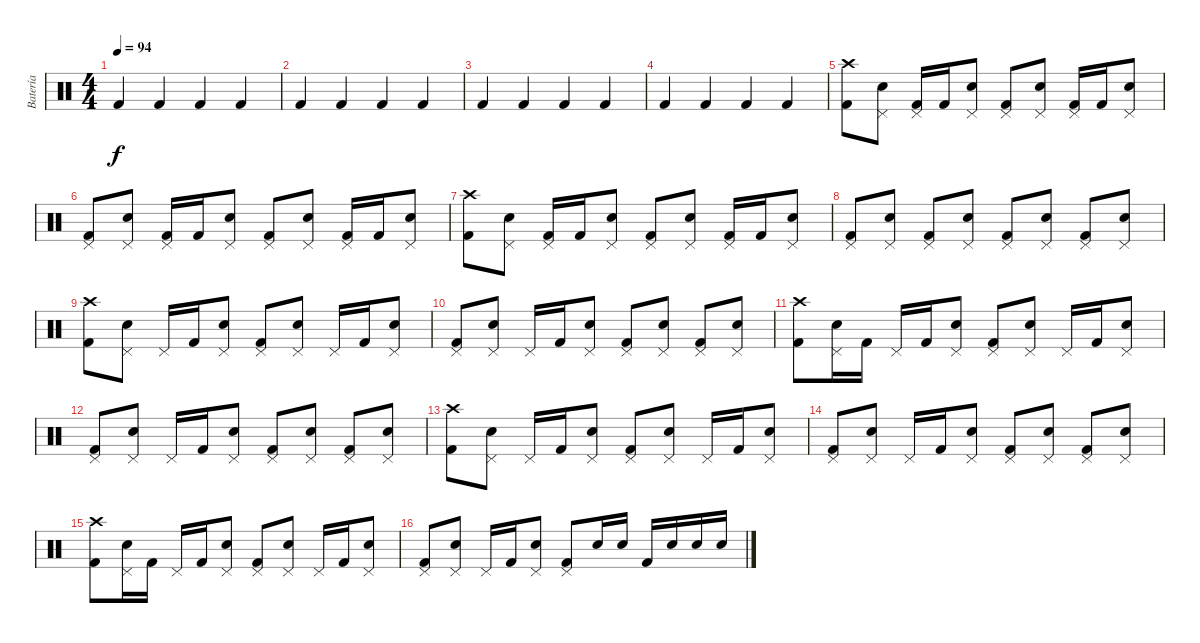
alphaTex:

\track ("Batería" "Batería") {instrument percussion}
\staff {score}
\articulation defaults
\ts (4 4)
\tempo 94
\clef neutral
\ks c "Kick (hit) 2".4{dy f} "Kick (hit) 2".4 "Kick (hit) 2".4 "Kick (hit) 2".4
|
"Kick (hit) 2".4 "Kick (hit) 2".4 "Kick (hit) 2".4 "Kick (hit) 2".4 |
"Kick (hit) 2".4 "Kick (hit) 2".4 "Kick (hit) 2".4 "Kick (hit) 2".4 |
"Kick (hit) 2".4 "Kick (hit) 2".4 "Kick (hit) 2".4 "Kick (hit) 2".4 |
("Crash high (hit)" "Kick (hit) 2").8 ("Pedal Hi-Hat (hit)" "Electric Snare (hit)").8 ("Pedal Hi-Hat (hit)" "Kick (hit) 2").16 "Kick (hit) 2".16 ("Pedal Hi-Hat (hit)" "Electric Snare (hit)").8 ("Pedal Hi-Hat (hit)" "Kick (hit) 2").8 ("Pedal Hi-Hat (hit)" "Electric Snare (hit)").8 ("Pedal Hi-Hat (hit)" "Kick (hit) 2").16 "Kick (hit) 2".16 ("Pedal Hi-Hat (hit)" "Electric Snare (hit)").8 |
("Pedal Hi-Hat (hit)" "Kick (hit) 2").8 ("Pedal Hi-Hat (hit)" "Electric Snare (hit)").8 ("Pedal Hi-Hat (hit)" "Kick (hit) 2").16 "Kick (hit) 2".16 ("Pedal Hi-Hat (hit)" "Electric Snare (hit)").8 ("Pedal Hi-Hat (hit)" "Kick (hit) 2").8 ("Pedal Hi-Hat (hit)" "Electric Snare (hit)").8 ("Pedal Hi-Hat (hit)" "Kick (hit) 2").16 "Kick (hit) 2".16 ("Pedal Hi-Hat (hit)" "Electric Snare (hit)").8 |
("Crash high (hit)" "Kick (hit) 2").8 ("Pedal Hi-Hat (hit)" "Electric Snare (hit)").8 ("Pedal Hi-Hat (hit)" "Kick (hit) 2").16 "Kick (hit) 2".16 ("Pedal Hi-Hat (hit)" "Electric Snare (hit)").8 ("Pedal Hi-Hat (hit)" "Kick (hit) 2").8 ("Pedal Hi-Hat (hit)" "Electric Snare (hit)").8 ("Pedal Hi-Hat (hit)" "Kick (hit) 2").16 "Kick (hit) 2".16 ("Pedal Hi-Hat (hit)" "Electric Snare (hit)").8 |
("Pedal Hi-Hat (hit)" "Kick (hit) 2").8 ("Pedal Hi-Hat (hit)" "Electric Snare (hit)").8 ("Pedal Hi-Hat (hit)" "Kick (hit) 2").8 ("Pedal Hi-Hat (hit)" "Electric Snare (hit)").8 ("Pedal Hi-Hat (hit)" "Kick (hit) 2").8 ("Pedal Hi-Hat (hit)" "Electric Snare (hit)").8 ("Pedal Hi-Hat (hit)" "Kick (hit) 2").8 ("Pedal Hi-Hat (hit)" "Electric Snare (hit)").8 |
("Crash high (hit)" "Kick (hit) 2").8 ("Pedal Hi-Hat (hit)" "Electric Snare (hit)").8 "Pedal Hi-Hat (hit)".16 "Kick (hit) 2".16 ("Pedal Hi-Hat (hit)" "Electric Snare (hit)").8 ("Pedal Hi-Hat (hit)" "Kick (hit) 2").8 ("Pedal Hi-Hat (hit)" "Electric Snare (hit)").8 "Pedal Hi-Hat (hit)".16 "Kick (hit) 2".16 ("Pedal Hi-Hat (hit)" "Electric Snare (hit)").8 |
("Pedal Hi-Hat (hit)" "Kick (hit) 2").8 ("Pedal Hi-Hat (hit)" "Electric Snare (hit)").8 "Pedal Hi-Hat (hit)".16 "Kick (hit) 2".16 ("Pedal Hi-Hat (hit)" "Electric Snare (hit)").8 ("Pedal Hi-Hat (hit)" "Kick (hit) 2").8 ("Pedal Hi-Hat (hit)" "Electric Snare (hit)").8 ("Pedal Hi-Hat (hit)" "Kick (hit) 2").8 ("Pedal Hi-Hat (hit)" "Electric Snare (hit)").8 |
("Crash high (hit)" "Kick (hit) 2").8 ("Pedal Hi-Hat (hit)" "Electric Snare (hit)").16 "Kick (hit) 2".16 "Pedal Hi-Hat (hit)".16 "Kick (hit) 2".16 ("Pedal Hi-Hat (hit)" "Electric Snare (hit)").8 ("Pedal Hi-Hat (hit)" "Kick (hit) 2").8 ("Pedal Hi-Hat (hit)" "Electric Snare (hit)").8 "Pedal Hi-Hat (hit)".16 "Kick (hit) 2".16 ("Pedal Hi-Hat (hit)" "Electric Snare (hit)").8 |
("Pedal Hi-Hat (hit)" "Kick (hit) 2").8 ("Pedal Hi-Hat (hit)" "Electric Snare (hit)").8 "Pedal Hi-Hat (hit)".16 "Kick (hit) 2".16 ("Pedal Hi-Hat (hit)" "Electric Snare (hit)").8 ("Pedal Hi-Hat (hit)" "Kick (hit) 2").8 ("Pedal Hi-Hat (hit)" "Electric Snare (hit)").8 ("Pedal Hi-Hat (hit)" "Kick (hit) 2").8 ("Pedal Hi-Hat (hit)" "Electric Snare (hit)").8 |
("Crash high (hit)" "Kick (hit) 2").8 ("Pedal Hi-Hat (hit)" "Electric Snare (hit)").8 "Pedal Hi-Hat (hit)".16 "Kick (hit) 2".16 ("Pedal Hi-Hat (hit)" "Electric Snare (hit)").8 ("Pedal Hi-Hat (hit)" "Kick (hit) 2").8 ("Pedal Hi-Hat (hit)" "Electric Snare (hit)").8 "Pedal Hi-Hat (hit)".16 "Kick (hit) 2".16 ("Pedal Hi-Hat (hit)" "Electric Snare (hit)").8 |
("Pedal Hi-Hat (hit)" "Kick (hit) 2").8 ("Pedal Hi-Hat (hit)" "Electric Snare (hit)").8 "Pedal Hi-Hat (hit)".16 "Kick (hit) 2".16 ("Pedal Hi-Hat (hit)" "Electric Snare (hit)").8 ("Pedal Hi-Hat (hit)" "Kick (hit) 2").8 ("Pedal Hi-Hat (hit)" "Electric Snare (hit)").8 ("Pedal Hi-Hat (hit)" "Kick (hit) 2").8 ("Pedal Hi-Hat (hit)" "Electric Snare (hit)").8 |
("Crash high (hit)" "Kick (hit) 2").8 ("Pedal Hi-Hat (hit)" "Electric Snare (hit)").16 "Kick (hit) 2".16 "Pedal Hi-Hat (hit)".16 "Kick (hit) 2".16 ("Pedal Hi-Hat (hit)" "Electric Snare (hit)").8 ("Pedal Hi-Hat (hit)" "Kick (hit) 2").8 ("Pedal Hi-Hat (hit)" "Electric Snare (hit)").8 "Pedal Hi-Hat (hit)".16 "Kick (hit) 2".16 ("Pedal Hi-Hat (hit)" "Electric Snare (hit)").8 |
("Pedal Hi-Hat (hit)" "Kick (hit) 2").8 ("Pedal Hi-Hat (hit)" "Electric Snare (hit)").8 "Pedal Hi-Hat (hit)".16 "Kick (hit) 2".16 ("Pedal Hi-Hat (hit)" "Electric Snare (hit)").8 ("Pedal Hi-Hat (hit)" "Kick (hit) 2").8 "Electric Snare (hit)".16 "Electric Snare (hit)".16 "Kick (hit) 2".16 "Electric Snare (hit)".16 "Electric Snare (hit)".16 "Electric Snare (hit)".16
